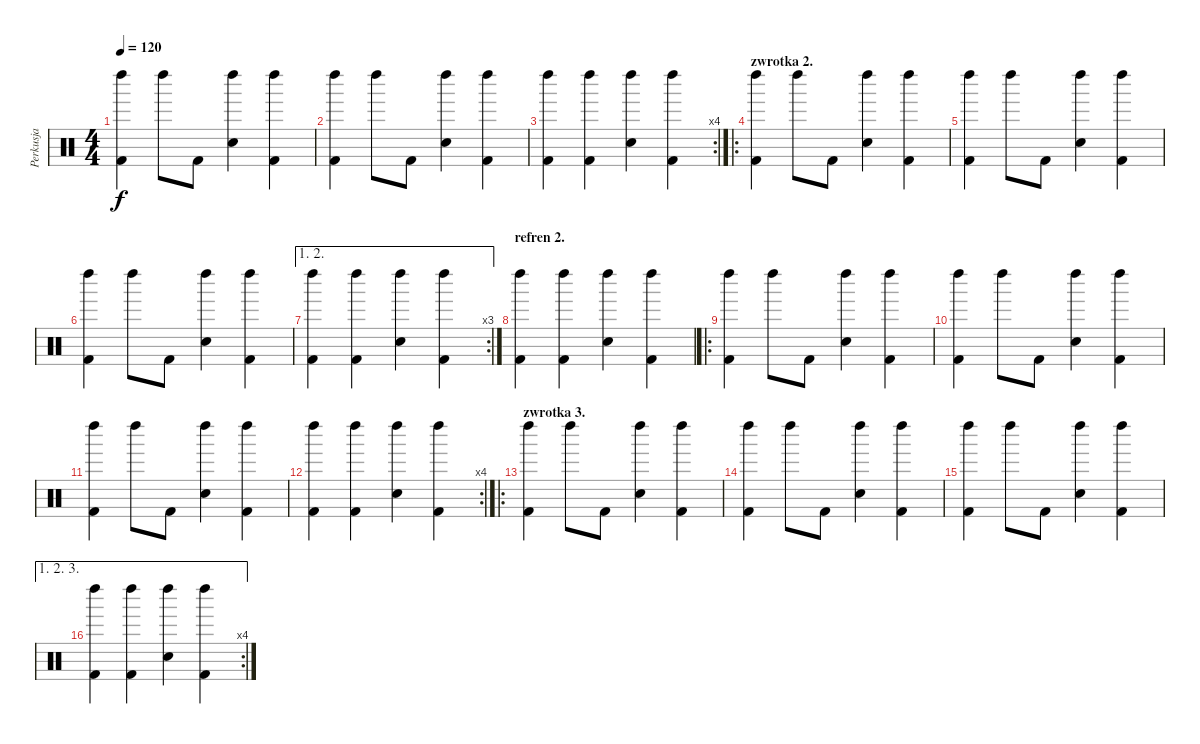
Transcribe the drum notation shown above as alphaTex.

\track ("Perkusja" "Perkusja") {instrument percussion}
\staff {score}
\articulation defaults
\ts (4 4)
\tempo 120
\clef neutral
\ks c
("Left Maraca (hit)" "Kick (hit) 2").4{dy f} "Left Maraca (hit)".8 "Kick (hit) 2".8 ("Left Maraca (hit)" "Snare (hit) 2").4 ("Left Maraca (hit)" "Kick (hit) 2").4 |
("Left Maraca (hit)" "Kick (hit) 2").4 "Left Maraca (hit)".8 "Kick (hit) 2".8 ("Left Maraca (hit)" "Snare (hit) 2").4 ("Left Maraca (hit)" "Kick (hit) 2").4 |
\rc 4
("Left Maraca (hit)" "Kick (hit) 2").4 ("Left Maraca (hit)" "Kick (hit) 2").4 ("Left Maraca (hit)" "Snare (hit) 2").4 ("Left Maraca (hit)" "Kick (hit) 2").4 |
\ro
\section ("" "zwrotka 2.")
("Left Maraca (hit)" "Kick (hit) 2").4 "Left Maraca (hit)".8 "Kick (hit) 2".8 ("Left Maraca (hit)" "Snare (hit) 2").4 ("Left Maraca (hit)" "Kick (hit) 2").4 |
("Left Maraca (hit)" "Kick (hit) 2").4 "Left Maraca (hit)".8 "Kick (hit) 2".8 ("Left Maraca (hit)" "Snare (hit) 2").4 ("Left Maraca (hit)" "Kick (hit) 2").4 |
("Left Maraca (hit)" "Kick (hit) 2").4 "Left Maraca (hit)".8 "Kick (hit) 2".8 ("Left Maraca (hit)" "Snare (hit) 2").4 ("Left Maraca (hit)" "Kick (hit) 2").4 |
\ae (1 2)
\rc 3
("Left Maraca (hit)" "Kick (hit) 2").4 ("Left Maraca (hit)" "Kick (hit) 2").4 ("Left Maraca (hit)" "Snare (hit) 2").4 ("Left Maraca (hit)" "Kick (hit) 2").4 |
\section ("" "refren 2.")
("Left Maraca (hit)" "Kick (hit) 2").4 ("Left Maraca (hit)" "Kick (hit) 2").4 ("Left Maraca (hit)" "Snare (hit) 2").4 ("Left Maraca (hit)" "Kick (hit) 2").4 |
\ro
("Left Maraca (hit)" "Kick (hit) 2").4 "Left Maraca (hit)".8 "Kick (hit) 2".8 ("Left Maraca (hit)" "Snare (hit) 2").4 ("Left Maraca (hit)" "Kick (hit) 2").4 |
("Left Maraca (hit)" "Kick (hit) 2").4 "Left Maraca (hit)".8 "Kick (hit) 2".8 ("Left Maraca (hit)" "Snare (hit) 2").4 ("Left Maraca (hit)" "Kick (hit) 2").4 |
("Left Maraca (hit)" "Kick (hit) 2").4 "Left Maraca (hit)".8 "Kick (hit) 2".8 ("Left Maraca (hit)" "Snare (hit) 2").4 ("Left Maraca (hit)" "Kick (hit) 2").4 |
\rc 4
("Left Maraca (hit)" "Kick (hit) 2").4 ("Left Maraca (hit)" "Kick (hit) 2").4 ("Left Maraca (hit)" "Snare (hit) 2").4 ("Left Maraca (hit)" "Kick (hit) 2").4 |
\ro
\section ("" "zwrotka 3.")
("Left Maraca (hit)" "Kick (hit) 2").4 "Left Maraca (hit)".8 "Kick (hit) 2".8 ("Left Maraca (hit)" "Snare (hit) 2").4 ("Left Maraca (hit)" "Kick (hit) 2").4 |
("Left Maraca (hit)" "Kick (hit) 2").4 "Left Maraca (hit)".8 "Kick (hit) 2".8 ("Left Maraca (hit)" "Snare (hit) 2").4 ("Left Maraca (hit)" "Kick (hit) 2").4 |
("Left Maraca (hit)" "Kick (hit) 2").4 "Left Maraca (hit)".8 "Kick (hit) 2".8 ("Left Maraca (hit)" "Snare (hit) 2").4 ("Left Maraca (hit)" "Kick (hit) 2").4 |
\ae (1 2 3)
\rc 4
("Left Maraca (hit)" "Kick (hit) 2").4 ("Left Maraca (hit)" "Kick (hit) 2").4 ("Left Maraca (hit)" "Snare (hit) 2").4 ("Left Maraca (hit)" "Kick (hit) 2").4
